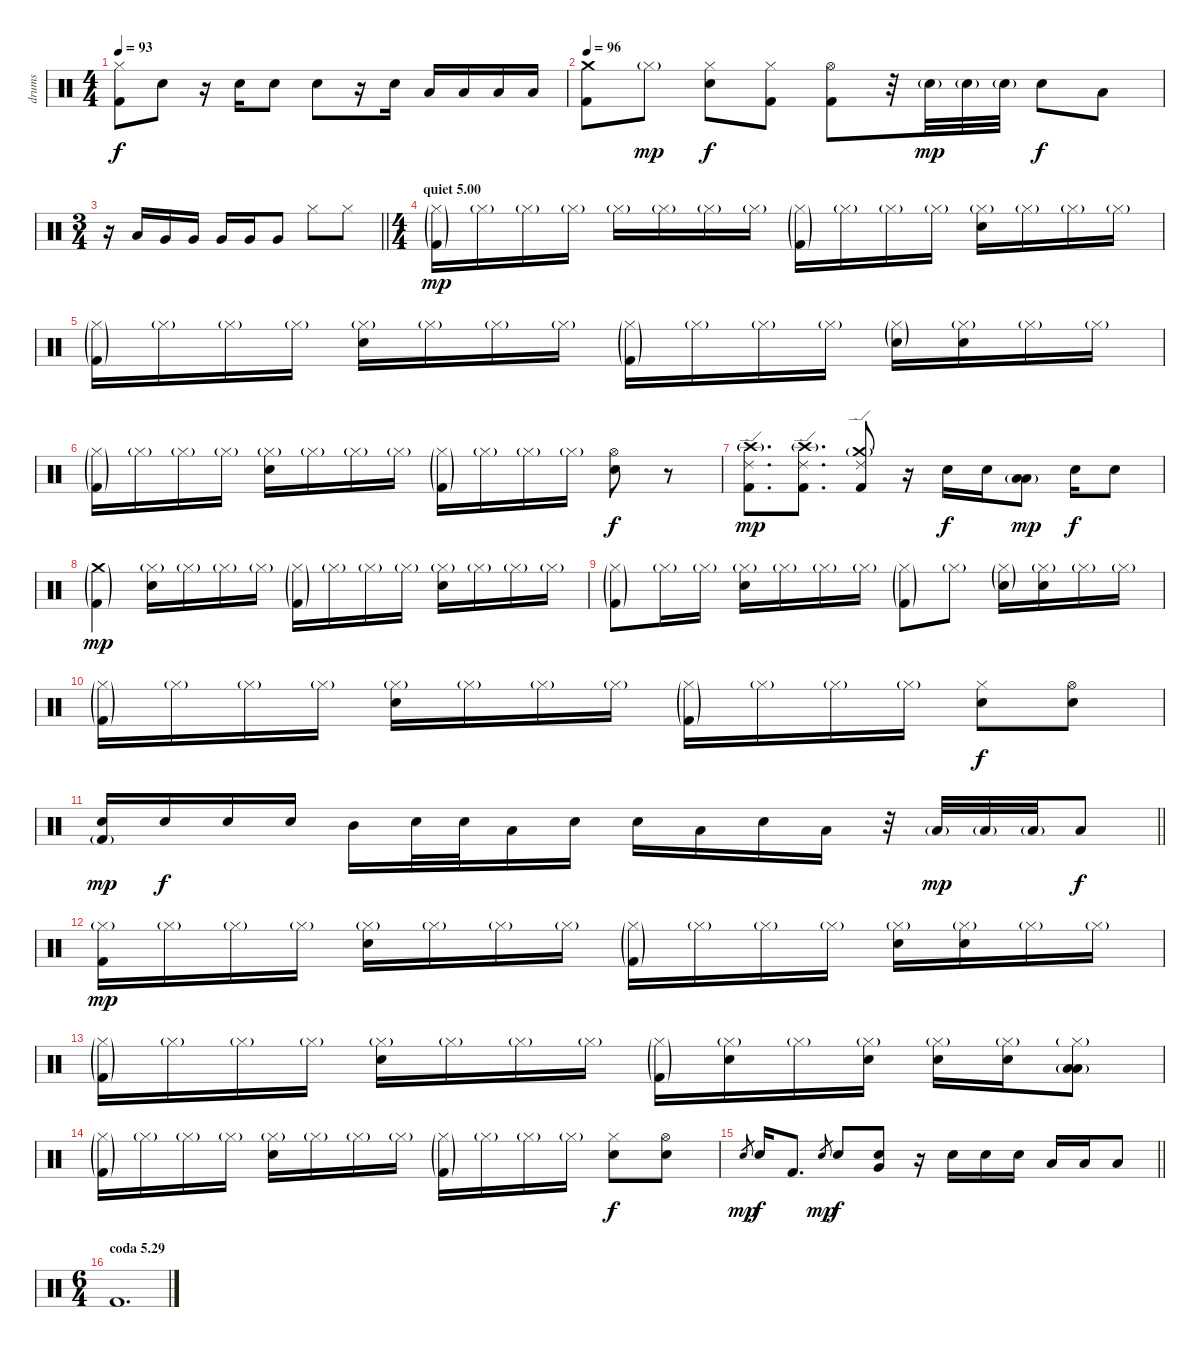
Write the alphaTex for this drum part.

\track ("drums" "drums") {instrument percussion}
\staff {score}
\articulation defaults
\ts (4 4)
\tempo 93
\clef neutral
\ks c
("Hi-Hat (closed)" "Kick (hit) 2").8{dy f} "Electric Snare (hit)".8 r.16 "Electric Snare (hit)".16 "Electric Snare (hit)".8 "Electric Snare (hit)".8 r.16 "Electric Snare (hit)".16 "Low Tom (hit)".16 "Low Tom (hit)".16 "Low Floor Tom (hit)".16 "Low Floor Tom (hit)".16 |
\tempo 96
("Crash medium (hit)" "Kick (hit) 2").8 "Hi-Hat (closed)"{g}.8{dy mp} ("Hi-Hat (closed)" "Electric Snare (hit)").8{dy f} ("Hi-Hat (closed)" "Kick (hit) 2").8 ("Hi-Hat (open)" "Kick (hit) 2").8 r.32 "Electric Snare (hit)"{g}.32{dy mp} "Electric Snare (hit)"{g}.32 "Electric Snare (hit)"{g}.32 "Electric Snare (hit)".8{dy f} "Low Tom (hit)".8 |
\ts (3 4)
\barLineRight lightlight
r.16 "Low Tom (hit)".16 "Very Low Tom (hit)".16 "Very Low Tom (hit)".16 "Very Low Tom (hit)".16 "Very Low Tom (hit)".16 "Very Low Tom (hit)".8 "Hi-Hat (closed)".8 "Hi-Hat (closed)".8 |
\ts (4 4)
\section ("" "quiet 5.00")
("Hi-Hat (closed)"{g} "Kick (hit) 2"{g}).16{dy mp} "Hi-Hat (closed)"{g}.16 "Hi-Hat (closed)"{g}.16 "Hi-Hat (closed)"{g}.16 "Hi-Hat (closed)"{g}.16 "Hi-Hat (closed)"{g}.16 "Hi-Hat (closed)"{g}.16 "Hi-Hat (closed)"{g}.16 ("Hi-Hat (closed)"{g} "Kick (hit) 2"{g}).16 "Hi-Hat (closed)"{g}.16 "Hi-Hat (closed)"{g}.16 "Hi-Hat (closed)"{g}.16 ("Hi-Hat (closed)"{g} "Electric Snare (hit)").16 "Hi-Hat (closed)"{g}.16 "Hi-Hat (closed)"{g}.16 "Hi-Hat (closed)"{g}.16 |
("Hi-Hat (closed)"{g} "Kick (hit) 2"{g}).16 "Hi-Hat (closed)"{g}.16 "Hi-Hat (closed)"{g}.16 "Hi-Hat (closed)"{g}.16 ("Hi-Hat (closed)"{g} "Electric Snare (hit)").16 "Hi-Hat (closed)"{g}.16 "Hi-Hat (closed)"{g}.16 "Hi-Hat (closed)"{g}.16 ("Hi-Hat (closed)"{g} "Kick (hit) 2"{g}).16 "Hi-Hat (closed)"{g}.16 "Hi-Hat (closed)"{g}.16 "Hi-Hat (closed)"{g}.16 ("Hi-Hat (closed)"{g} "Electric Snare (hit)"{g}).16 ("Hi-Hat (closed)"{g} "Electric Snare (hit)").16 "Hi-Hat (closed)"{g}.16 "Hi-Hat (closed)"{g}.16 |
("Hi-Hat (closed)"{g} "Kick (hit) 2"{g}).16 "Hi-Hat (closed)"{g}.16 "Hi-Hat (closed)"{g}.16 "Hi-Hat (closed)"{g}.16 ("Hi-Hat (closed)"{g} "Electric Snare (hit)").16 "Hi-Hat (closed)"{g}.16 "Hi-Hat (closed)"{g}.16 "Hi-Hat (closed)"{g}.16 ("Hi-Hat (closed)"{g} "Kick (hit) 2"{g}).16 "Hi-Hat (closed)"{g}.16 "Hi-Hat (closed)"{g}.16 "Hi-Hat (closed)"{g}.16 ("Hi-Hat (open)" "Electric Snare (hit)").8{dy f} r.8 |
("Ride (edge) 2" "Crash high (hit)"{g} "Kick (hit) 2").8{d dy mp} ("Ride (edge) 2" "Crash high (hit)"{g} "Kick (hit) 2").8{d} ("Ride (edge) 2" "Crash medium (hit)"{g} "Kick (hit) 2").8 r.16 "Electric Snare (hit)".16{dy f} "Electric Snare (hit)".16 ("Low Tom (hit)" "Low Floor Tom (hit)"{g}).8{dy mp} "Electric Snare (hit)".16{dy f} "Electric Snare (hit)".8 |
("Crash medium (hit)"{g} "Kick (hit) 2"{g}).4{dy mp} ("Hi-Hat (closed)"{g} "Electric Snare (hit)").16 "Hi-Hat (closed)"{g}.16 "Hi-Hat (closed)"{g}.16 "Hi-Hat (closed)"{g}.16 ("Hi-Hat (closed)"{g} "Kick (hit) 2"{g}).16 "Hi-Hat (closed)"{g}.16 "Hi-Hat (closed)"{g}.16 "Hi-Hat (closed)"{g}.16 ("Hi-Hat (closed)"{g} "Electric Snare (hit)").16 "Hi-Hat (closed)"{g}.16 "Hi-Hat (closed)"{g}.16 "Hi-Hat (closed)"{g}.16 |
("Hi-Hat (closed)"{g} "Kick (hit) 2"{g}).8 "Hi-Hat (closed)"{g}.16 "Hi-Hat (closed)"{g}.16 ("Hi-Hat (closed)"{g} "Electric Snare (hit)").16 "Hi-Hat (closed)"{g}.16 "Hi-Hat (closed)"{g}.16 "Hi-Hat (closed)"{g}.16 ("Hi-Hat (closed)"{g} "Kick (hit) 2"{g}).8 "Hi-Hat (closed)"{g}.8 ("Hi-Hat (closed)"{g} "Electric Snare (hit)"{g}).16 ("Hi-Hat (closed)"{g} "Electric Snare (hit)").16 "Hi-Hat (closed)"{g}.16 "Hi-Hat (closed)"{g}.16 |
("Hi-Hat (closed)"{g} "Kick (hit) 2"{g}).16 "Hi-Hat (closed)"{g}.16 "Hi-Hat (closed)"{g}.16 "Hi-Hat (closed)"{g}.16 ("Hi-Hat (closed)"{g} "Electric Snare (hit)").16 "Hi-Hat (closed)"{g}.16 "Hi-Hat (closed)"{g}.16 "Hi-Hat (closed)"{g}.16 ("Hi-Hat (closed)"{g} "Kick (hit) 2"{g}).16 "Hi-Hat (closed)"{g}.16 "Hi-Hat (closed)"{g}.16 "Hi-Hat (closed)"{g}.16 ("Hi-Hat (closed)" "Electric Snare (hit)").8{dy f} ("Hi-Hat (open)" "Electric Snare (hit)").8 |
\barLineRight lightlight
("Kick (hit) 2"{g} "Electric Snare (hit)").16{dy mp} "Electric Snare (hit)".16{dy f} "Electric Snare (hit)".16 "Electric Snare (hit)".16 "Mid Tom (hit)".16 "Electric Snare (hit)".32 "Electric Snare (hit)".32 "Low Tom (hit)".16 "Electric Snare (hit)".16 "Electric Snare (hit)".16 "Low Tom (hit)".16 "Electric Snare (hit)".16 "Low Tom (hit)".16 r.32 "Low Tom (hit)"{g}.32{dy mp} "Low Tom (hit)"{g}.32 "Low Tom (hit)"{g}.32 "Low Tom (hit)".8{dy f} |
("Hi-Hat (closed)"{g} "Kick (hit) 2").16{dy mp} "Hi-Hat (closed)"{g}.16 "Hi-Hat (closed)"{g}.16 "Hi-Hat (closed)"{g}.16 ("Hi-Hat (closed)"{g} "Electric Snare (hit)").16 "Hi-Hat (closed)"{g}.16 "Hi-Hat (closed)"{g}.16 "Hi-Hat (closed)"{g}.16 ("Hi-Hat (closed)"{g} "Kick (hit) 2"{g}).16 "Hi-Hat (closed)"{g}.16 "Hi-Hat (closed)"{g}.16 "Hi-Hat (closed)"{g}.16 ("Hi-Hat (closed)"{g} "Electric Snare (hit)").16 ("Hi-Hat (closed)"{g} "Electric Snare (hit)").16 "Hi-Hat (closed)"{g}.16 "Hi-Hat (closed)"{g}.16 |
("Hi-Hat (closed)"{g} "Kick (hit) 2"{g}).16 "Hi-Hat (closed)"{g}.16 "Hi-Hat (closed)"{g}.16 "Hi-Hat (closed)"{g}.16 ("Hi-Hat (closed)"{g} "Electric Snare (hit)").16 "Hi-Hat (closed)"{g}.16 "Hi-Hat (closed)"{g}.16 "Hi-Hat (closed)"{g}.16 ("Hi-Hat (closed)"{g} "Kick (hit) 2"{g}).16 ("Hi-Hat (closed)"{g} "Electric Snare (hit)").16 "Hi-Hat (closed)"{g}.16 ("Hi-Hat (closed)"{g} "Electric Snare (hit)").16 ("Hi-Hat (closed)"{g} "Electric Snare (hit)").16 ("Hi-Hat (closed)"{g} "Electric Snare (hit)").16 ("Hi-Hat (closed)"{g} "Low Tom (hit)" "Low Floor Tom (hit)"{g}).8 |
("Hi-Hat (closed)"{g} "Kick (hit) 2"{g}).16 "Hi-Hat (closed)"{g}.16 "Hi-Hat (closed)"{g}.16 "Hi-Hat (closed)"{g}.16 ("Hi-Hat (closed)"{g} "Electric Snare (hit)").16 "Hi-Hat (closed)"{g}.16 "Hi-Hat (closed)"{g}.16 "Hi-Hat (closed)"{g}.16 ("Hi-Hat (closed)"{g} "Kick (hit) 2"{g}).16 "Hi-Hat (closed)"{g}.16 "Hi-Hat (closed)"{g}.16 "Hi-Hat (closed)"{g}.16 ("Hi-Hat (closed)" "Electric Snare (hit)").8{dy f} ("Hi-Hat (open)" "Electric Snare (hit)").8 |
\barLineRight lightlight "Electric Snare (hit)".8{gr dy mp} "Electric Snare (hit)".16{dy f} "Kick (hit) 2".8{d} "Electric Snare (hit)".8{gr dy mp} "Electric Snare (hit)".8{dy f}
("Very Low Tom (hit)" "Electric Snare (hit)").8 r.16 "Electric Snare (hit)".16 "Electric Snare (hit)".16 "Electric Snare (hit)".16 "Low Tom (hit)".16 "Low Tom (hit)".16 "Low Tom (hit)".8 |
\ts (6 4)
\section ("" "coda 5.29")
"Kick (hit) 2".1{d}
